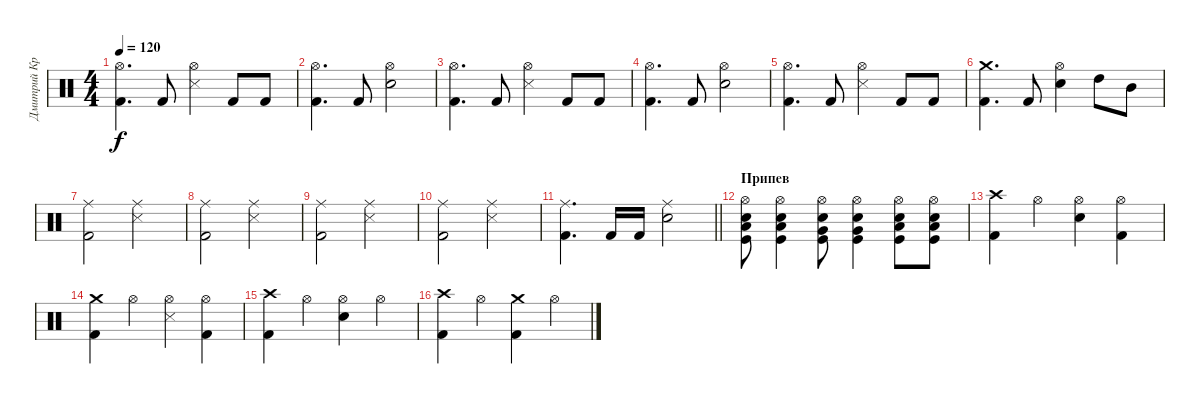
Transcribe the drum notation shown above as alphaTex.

\track ("Дмитрий Кривенков       (Ударные)" "Дмитрий Кр") {instrument percussion}
\staff {score}
\articulation defaults
\ts (4 4)
\tempo 120
\clef neutral
\ks c
("Hi-Hat (open)" "Kick (hit) 2").4{d dy f} "Kick (hit) 2".8 ("Snare (side stick) 3" "Hi-Hat (open)").4 "Kick (hit) 2".8 "Kick (hit) 2".8 |
("Hi-Hat (open)" "Kick (hit) 2").4{d} "Kick (hit) 2".8 ("Hi-Hat (open)" "Electric Snare (hit)").2 |
("Hi-Hat (open)" "Kick (hit) 2").4{d} "Kick (hit) 2".8 ("Snare (side stick) 3" "Hi-Hat (open)").4 "Kick (hit) 2".8 "Kick (hit) 2".8 |
("Hi-Hat (open)" "Kick (hit) 2").4{d} "Kick (hit) 2".8 ("Hi-Hat (open)" "Electric Snare (hit)").2 |
("Hi-Hat (open)" "Kick (hit) 2").4{d} "Kick (hit) 2".8 ("Snare (side stick) 3" "Hi-Hat (open)").4 "Kick (hit) 2".8 "Kick (hit) 2".8 |
("Crash medium (hit)" "Kick (hit) 2").4{d} "Kick (hit) 2".8 ("Hi-Hat (open)" "Electric Snare (hit)").4 "High Tom (hit)".8 "Mid Tom (hit)".8 |
("Ride (middle)" "Kick (hit) 2").2 ("Snare (side stick) 3" "Ride (middle)").2 |
("Ride (middle)" "Kick (hit) 2").2 ("Snare (side stick) 3" "Ride (middle)").2 |
("Ride (middle)" "Kick (hit) 2").2 ("Snare (side stick) 3" "Ride (middle)").2 |
("Ride (middle)" "Kick (hit) 2").2 ("Snare (side stick) 3" "Ride (middle)").2 |
\barLineRight lightlight
("Ride (middle)" "Kick (hit) 2").4{d} "Kick (hit) 2".16 "Kick (hit) 2".16 ("Ride (middle)" "Electric Snare (hit)").2 |
\section ("" "Припев")
("Kick (hit)" "Electric Snare (hit)" "Low Tom (hit)" "Hi-Hat (open)").8 ("Kick (hit)" "Electric Snare (hit)" "Low Tom (hit)" "Hi-Hat (open)").4 ("Hi-Hat (open)" "Electric Snare (hit)" "Very Low Tom (hit)" "Kick (hit)").8 ("Hi-Hat (open)" "Electric Snare (hit)" "Very Low Tom (hit)" "Kick (hit)").4 ("Hi-Hat (open)" "Electric Snare (hit)" "Low Tom (hit)" "Kick (hit)").8 ("Hi-Hat (open)" "Electric Snare (hit)" "Low Tom (hit)" "Kick (hit)").8 |
("Crash high (hit)" "Kick (hit) 2").4 "Hi-Hat (open)".4 ("Hi-Hat (open)" "Electric Snare (hit)").4 ("Hi-Hat (open)" "Kick (hit) 2").4 |
("Crash medium (hit)" "Kick (hit) 2").4 "Hi-Hat (open)".4 ("Snare (side stick) 3" "Hi-Hat (open)").4 ("Hi-Hat (open)" "Kick (hit) 2").4 |
("Crash high (hit)" "Kick (hit) 2").4 "Hi-Hat (open)".4 ("Hi-Hat (open)" "Electric Snare (hit)").4 "Hi-Hat (open)".4 |
("Crash high (hit)" "Kick (hit) 2").4 "Hi-Hat (open)".4 ("Crash medium (hit)" "Kick (hit) 2").4 "Hi-Hat (open)".4
